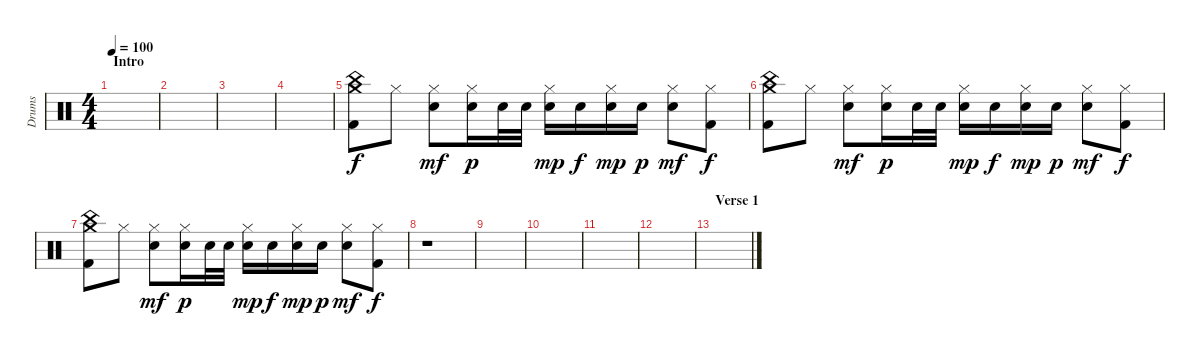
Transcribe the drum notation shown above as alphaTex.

\track ("Drums" "Drums") {instrument percussion}
\staff {score}
\articulation defaults
\ts (4 4)
\section ("" "Intro")
\tempo 100
\clef neutral
\ks c
|
|
|
|
\section ("" "")
("China (hit)" "Crash medium (hit)" "Kick (hit) 2").8 "Hi-Hat (closed)".8 ("Hi-Hat (closed)" "Electric Snare (hit)").8{dy mf} ("Hi-Hat (closed)" "Electric Snare (hit)").16{dy p} "Electric Snare (hit)".32 "Electric Snare (hit)".32 ("Hi-Hat (closed)" "Electric Snare (hit)").16{dy mp} "Electric Snare (hit)".16{dy f} ("Hi-Hat (closed)" "Electric Snare (hit)").16{dy mp} "Electric Snare (hit)".16{dy p} ("Hi-Hat (closed)" "Electric Snare (hit)").8{dy mf} ("Hi-Hat (closed)" "Kick (hit) 2").8{dy f} |
("China (hit)" "Crash medium (hit)" "Kick (hit) 2").8 "Hi-Hat (closed)".8 ("Hi-Hat (closed)" "Electric Snare (hit)").8{dy mf} ("Hi-Hat (closed)" "Electric Snare (hit)").16{dy p} "Electric Snare (hit)".32 "Electric Snare (hit)".32 ("Hi-Hat (closed)" "Electric Snare (hit)").16{dy mp} "Electric Snare (hit)".16{dy f} ("Hi-Hat (closed)" "Electric Snare (hit)").16{dy mp} "Electric Snare (hit)".16{dy p} ("Hi-Hat (closed)" "Electric Snare (hit)").8{dy mf} ("Hi-Hat (closed)" "Kick (hit) 2").8{dy f} |
("China (hit)" "Crash medium (hit)" "Kick (hit) 2").8 "Hi-Hat (closed)".8 ("Hi-Hat (closed)" "Electric Snare (hit)").8{dy mf} ("Hi-Hat (closed)" "Electric Snare (hit)").16{dy p} "Electric Snare (hit)".32 "Electric Snare (hit)".32 ("Hi-Hat (closed)" "Electric Snare (hit)").16{dy mp} "Electric Snare (hit)".16{dy f} ("Hi-Hat (closed)" "Electric Snare (hit)").16{dy mp} "Electric Snare (hit)".16{dy p} ("Hi-Hat (closed)" "Electric Snare (hit)").8{dy mf} ("Hi-Hat (closed)" "Kick (hit) 2").8{dy f} |
r.1 |
\section ("" "")
|
|
|
|
\section ("" "Verse 1")
